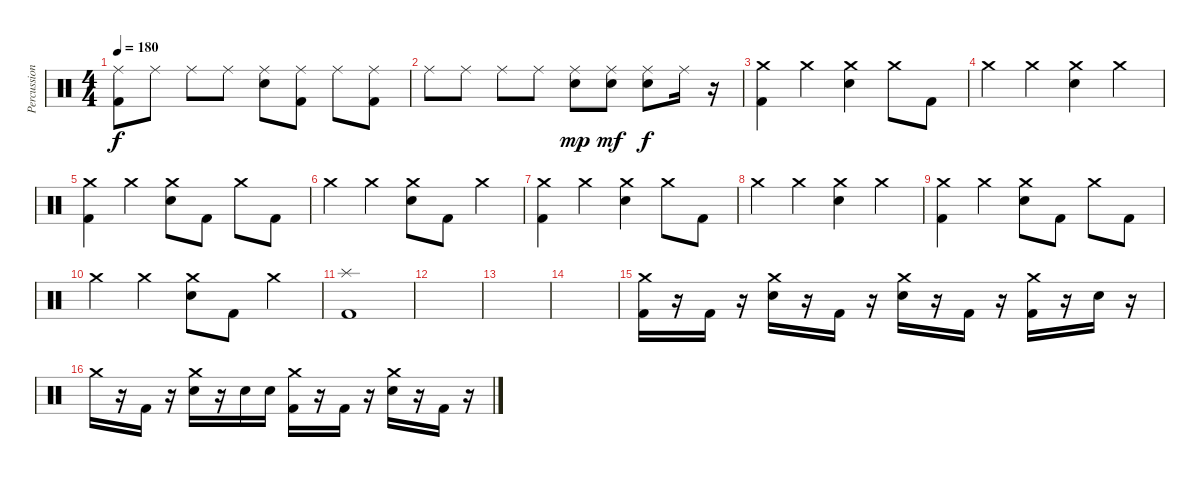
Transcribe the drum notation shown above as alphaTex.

\track ("Percussion" "Percussion") {instrument percussion}
\staff {score}
\articulation defaults
\ts (4 4)
\tempo 180
\clef neutral
\ks c
("Ride (middle)" "Kick (hit) 2").8{dy f} "Ride (middle)".8 "Ride (middle)".8 "Ride (middle)".8 ("Ride (middle)" "Snare (hit) 2").8 ("Ride (middle)" "Kick (hit) 2").8 "Ride (middle)".8 ("Ride (middle)" "Kick (hit) 2").8 |
"Ride (middle)".8 "Ride (middle)".8 "Ride (middle)".8 "Ride (middle)".8 ("Ride (middle)" "Snare (hit) 2").8{dy mp} ("Ride (middle)" "Snare (hit) 2").8{dy mf} ("Ride (middle)" "Snare (hit) 2").8{dy f} "Ride (middle)".16 r.16 |
("Crash medium (hit)" "Kick (hit) 2").4 "Crash medium (hit)".4 ("Crash medium (hit)" "Snare (hit) 2").4 "Crash medium (hit)".8 "Kick (hit) 2".8 |
"Crash medium (hit)".4 "Crash medium (hit)".4 ("Crash medium (hit)" "Snare (hit) 2").4 "Crash medium (hit)".4 |
("Crash medium (hit)" "Kick (hit) 2").4 "Crash medium (hit)".4 ("Crash medium (hit)" "Snare (hit) 2").8 "Kick (hit) 2".8 "Crash medium (hit)".8 "Kick (hit) 2".8 |
"Crash medium (hit)".4 "Crash medium (hit)".4 ("Crash medium (hit)" "Snare (hit) 2").8 "Kick (hit) 2".8 "Crash medium (hit)".4 |
("Crash medium (hit)" "Kick (hit) 2").4 "Crash medium (hit)".4 ("Crash medium (hit)" "Snare (hit) 2").4 "Crash medium (hit)".8 "Kick (hit) 2".8 |
"Crash medium (hit)".4 "Crash medium (hit)".4 ("Crash medium (hit)" "Snare (hit) 2").4 "Crash medium (hit)".4 |
("Crash medium (hit)" "Kick (hit) 2").4 "Crash medium (hit)".4 ("Crash medium (hit)" "Snare (hit) 2").8 "Kick (hit) 2".8 "Crash medium (hit)".8 "Kick (hit) 2".8 |
"Crash medium (hit)".4 "Crash medium (hit)".4 ("Crash medium (hit)" "Snare (hit) 2").8 "Kick (hit) 2".8 "Crash medium (hit)".4 |
("Splash (hit)" "Kick (hit) 2").1 |
|
|
|
("Crash medium (hit)" "Kick (hit) 2").16 r.16 "Kick (hit) 2".16 r.16 ("Crash medium (hit)" "Snare (hit) 2").16 r.16 "Kick (hit) 2".16 r.16 ("Crash medium (hit)" "Snare (hit) 2").16 r.16 "Kick (hit) 2".16 r.16 ("Crash medium (hit)" "Kick (hit) 2").16 r.16 "Snare (hit) 2".16 r.16 |
"Crash medium (hit)".16 r.16 "Kick (hit) 2".16 r.16 ("Crash medium (hit)" "Snare (hit) 2").16 r.16 "Snare (hit) 2".16 "Snare (hit) 2".16 ("Crash medium (hit)" "Kick (hit) 2").16 r.16 "Kick (hit) 2".16 r.16 ("Crash medium (hit)" "Snare (hit) 2").16 r.16 "Kick (hit) 2".16 r.16
